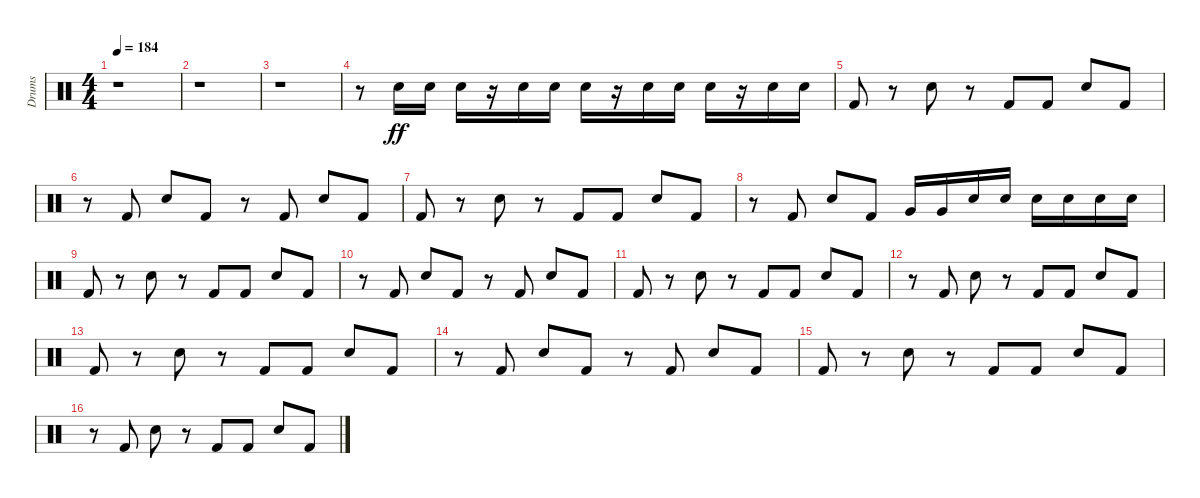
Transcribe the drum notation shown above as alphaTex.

\track ("Drums" "Drums") {instrument percussion}
\staff {score}
\articulation defaults
\ts (4 4)
\tempo 184
\clef neutral
\ks c
r.1{dy ff} |
r.1 |
r.1 |
r.8 "Electric Snare (hit)".16 "Electric Snare (hit)".16 "Electric Snare (hit)".16 r.16 "Electric Snare (hit)".16 "Electric Snare (hit)".16 "Electric Snare (hit)".16 r.16 "Electric Snare (hit)".16 "Electric Snare (hit)".16 "Electric Snare (hit)".16 r.16 "Electric Snare (hit)".16 "Electric Snare (hit)".16 |
"Kick (hit) 2".8 r.8 "Electric Snare (hit)".8 r.8 "Kick (hit) 2".8 "Kick (hit) 2".8 "Electric Snare (hit)".8 "Kick (hit) 2".8 |
r.8 "Kick (hit) 2".8 "Electric Snare (hit)".8 "Kick (hit) 2".8 r.8 "Kick (hit) 2".8 "Electric Snare (hit)".8 "Kick (hit) 2".8 |
"Kick (hit) 2".8 r.8 "Electric Snare (hit)".8 r.8 "Kick (hit) 2".8 "Kick (hit) 2".8 "Electric Snare (hit)".8 "Kick (hit) 2".8 |
r.8 "Kick (hit) 2".8 "Electric Snare (hit)".8 "Kick (hit) 2".8 "Very Low Tom (hit)".16 "Very Low Tom (hit)".16 "Electric Snare (hit)".16 "Electric Snare (hit)".16 "Electric Snare (hit)".16 "Electric Snare (hit)".16 "Electric Snare (hit)".16 "Electric Snare (hit)".16 |
"Kick (hit) 2".8 r.8 "Electric Snare (hit)".8 r.8 "Kick (hit) 2".8 "Kick (hit) 2".8 "Electric Snare (hit)".8 "Kick (hit) 2".8 |
r.8 "Kick (hit) 2".8 "Electric Snare (hit)".8 "Kick (hit) 2".8 r.8 "Kick (hit) 2".8 "Electric Snare (hit)".8 "Kick (hit) 2".8 |
"Kick (hit) 2".8 r.8 "Electric Snare (hit)".8 r.8 "Kick (hit) 2".8 "Kick (hit) 2".8 "Electric Snare (hit)".8 "Kick (hit) 2".8 |
r.8 "Kick (hit) 2".8 "Electric Snare (hit)".8 r.8 "Kick (hit) 2".8 "Kick (hit) 2".8 "Electric Snare (hit)".8 "Kick (hit) 2".8 |
"Kick (hit) 2".8 r.8 "Electric Snare (hit)".8 r.8 "Kick (hit) 2".8 "Kick (hit) 2".8 "Electric Snare (hit)".8 "Kick (hit) 2".8 |
r.8 "Kick (hit) 2".8 "Electric Snare (hit)".8 "Kick (hit) 2".8 r.8 "Kick (hit) 2".8 "Electric Snare (hit)".8 "Kick (hit) 2".8 |
"Kick (hit) 2".8 r.8 "Electric Snare (hit)".8 r.8 "Kick (hit) 2".8 "Kick (hit) 2".8 "Electric Snare (hit)".8 "Kick (hit) 2".8 |
r.8 "Kick (hit) 2".8 "Electric Snare (hit)".8 r.8 "Kick (hit) 2".8 "Kick (hit) 2".8 "Electric Snare (hit)".8 "Kick (hit) 2".8
